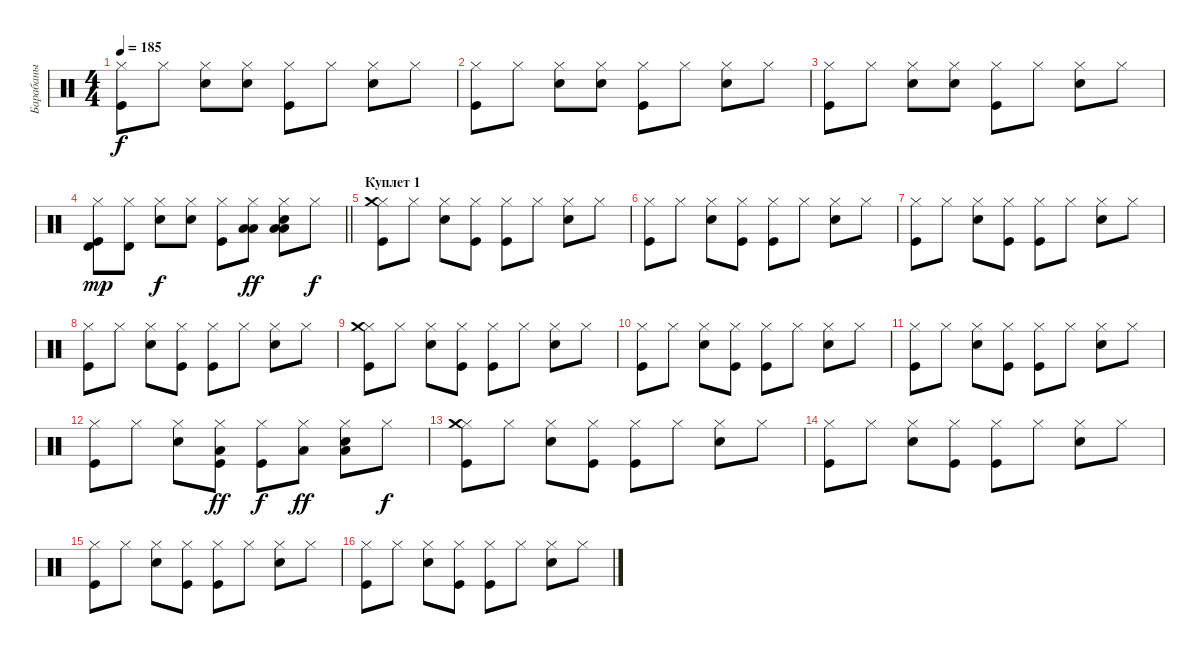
\track ("Барабаны" "Барабаны") {instrument percussion}
\staff {score}
\articulation defaults
\ts (4 4)
\tempo 185
\clef neutral
\ks c
("Kick (hit)" "Hi-Hat (closed)").8{dy f} "Hi-Hat (closed)".8 ("Snare (hit) 2" "Hi-Hat (closed)").8 ("Snare (hit) 2" "Hi-Hat (closed)").8 ("Kick (hit)" "Hi-Hat (closed)").8 "Hi-Hat (closed)".8 ("Snare (hit) 2" "Hi-Hat (closed)").8 "Hi-Hat (closed)".8 |
("Kick (hit)" "Hi-Hat (closed)").8 "Hi-Hat (closed)".8 ("Snare (hit) 2" "Hi-Hat (closed)").8 ("Snare (hit) 2" "Hi-Hat (closed)").8 ("Kick (hit)" "Hi-Hat (closed)").8 "Hi-Hat (closed)".8 ("Snare (hit) 2" "Hi-Hat (closed)").8 "Hi-Hat (closed)".8 |
("Kick (hit)" "Hi-Hat (closed)").8 "Hi-Hat (closed)".8 ("Snare (hit) 2" "Hi-Hat (closed)").8 ("Snare (hit) 2" "Hi-Hat (closed)").8 ("Kick (hit)" "Hi-Hat (closed)").8 "Hi-Hat (closed)".8 ("Snare (hit) 2" "Hi-Hat (closed)").8 "Hi-Hat (closed)".8 |
\barLineRight lightlight
("Kick (hit)" "Hi-Hat (closed)" "Timbale high (hit)").8{dy mp} ("Hi-Hat (closed)" "Timbale high (hit)").8 ("Snare (hit) 2" "Hi-Hat (closed)").8{dy f} ("Snare (hit) 2" "Hi-Hat (closed)").8 ("Kick (hit)" "Hi-Hat (closed)").8 ("Hi-Hat (closed)" "Low Floor Tom (hit)" "Low Floor Tom (hit)").8{dy ff} ("Snare (hit) 2" "Hi-Hat (closed)" "Low Floor Tom (hit)" "Low Floor Tom (hit)").8 "Hi-Hat (closed)".8{dy f} |
\section ("" "Куплет 1")
("Kick (hit)" "Hi-Hat (closed)" "Crash medium (hit)").8 "Hi-Hat (closed)".8 ("Snare (hit) 2" "Hi-Hat (closed)").8 ("Kick (hit)" "Hi-Hat (closed)").8 ("Kick (hit)" "Hi-Hat (closed)").8 "Hi-Hat (closed)".8 ("Snare (hit) 2" "Hi-Hat (closed)").8 "Hi-Hat (closed)".8 |
("Kick (hit)" "Hi-Hat (closed)").8 "Hi-Hat (closed)".8 ("Snare (hit) 2" "Hi-Hat (closed)").8 ("Kick (hit)" "Hi-Hat (closed)").8 ("Kick (hit)" "Hi-Hat (closed)").8 "Hi-Hat (closed)".8 ("Snare (hit) 2" "Hi-Hat (closed)").8 "Hi-Hat (closed)".8 |
("Kick (hit)" "Hi-Hat (closed)").8 "Hi-Hat (closed)".8 ("Snare (hit) 2" "Hi-Hat (closed)").8 ("Kick (hit)" "Hi-Hat (closed)").8 ("Kick (hit)" "Hi-Hat (closed)").8 "Hi-Hat (closed)".8 ("Snare (hit) 2" "Hi-Hat (closed)").8 "Hi-Hat (closed)".8 |
("Kick (hit)" "Hi-Hat (closed)").8 "Hi-Hat (closed)".8 ("Snare (hit) 2" "Hi-Hat (closed)").8 ("Kick (hit)" "Hi-Hat (closed)").8 ("Kick (hit)" "Hi-Hat (closed)").8 "Hi-Hat (closed)".8 ("Snare (hit) 2" "Hi-Hat (closed)").8 "Hi-Hat (closed)".8 |
("Kick (hit)" "Hi-Hat (closed)" "Crash medium (hit)").8 "Hi-Hat (closed)".8 ("Snare (hit) 2" "Hi-Hat (closed)").8 ("Kick (hit)" "Hi-Hat (closed)").8 ("Kick (hit)" "Hi-Hat (closed)").8 "Hi-Hat (closed)".8 ("Snare (hit) 2" "Hi-Hat (closed)").8 "Hi-Hat (closed)".8 |
("Kick (hit)" "Hi-Hat (closed)").8 "Hi-Hat (closed)".8 ("Snare (hit) 2" "Hi-Hat (closed)").8 ("Kick (hit)" "Hi-Hat (closed)").8 ("Kick (hit)" "Hi-Hat (closed)").8 "Hi-Hat (closed)".8 ("Snare (hit) 2" "Hi-Hat (closed)").8 "Hi-Hat (closed)".8 |
("Kick (hit)" "Hi-Hat (closed)").8 "Hi-Hat (closed)".8 ("Snare (hit) 2" "Hi-Hat (closed)").8 ("Kick (hit)" "Hi-Hat (closed)").8 ("Kick (hit)" "Hi-Hat (closed)").8 "Hi-Hat (closed)".8 ("Snare (hit) 2" "Hi-Hat (closed)").8 "Hi-Hat (closed)".8 |
("Kick (hit)" "Hi-Hat (closed)").8 "Hi-Hat (closed)".8 ("Snare (hit) 2" "Hi-Hat (closed)").8 ("Kick (hit)" "Hi-Hat (closed)" "Low Tom (hit)").8{dy ff} ("Kick (hit)" "Hi-Hat (closed)").8{dy f} ("Hi-Hat (closed)" "Low Floor Tom (hit)").8{dy ff} ("Snare (hit) 2" "Hi-Hat (closed)" "Low Floor Tom (hit)").8 "Hi-Hat (closed)".8{dy f} |
("Kick (hit)" "Hi-Hat (closed)" "Crash medium (hit)").8 "Hi-Hat (closed)".8 ("Snare (hit) 2" "Hi-Hat (closed)").8 ("Kick (hit)" "Hi-Hat (closed)").8 ("Kick (hit)" "Hi-Hat (closed)").8 "Hi-Hat (closed)".8 ("Snare (hit) 2" "Hi-Hat (closed)").8 "Hi-Hat (closed)".8 |
("Kick (hit)" "Hi-Hat (closed)").8 "Hi-Hat (closed)".8 ("Snare (hit) 2" "Hi-Hat (closed)").8 ("Kick (hit)" "Hi-Hat (closed)").8 ("Kick (hit)" "Hi-Hat (closed)").8 "Hi-Hat (closed)".8 ("Snare (hit) 2" "Hi-Hat (closed)").8 "Hi-Hat (closed)".8 |
("Kick (hit)" "Hi-Hat (closed)").8 "Hi-Hat (closed)".8 ("Snare (hit) 2" "Hi-Hat (closed)").8 ("Kick (hit)" "Hi-Hat (closed)").8 ("Kick (hit)" "Hi-Hat (closed)").8 "Hi-Hat (closed)".8 ("Snare (hit) 2" "Hi-Hat (closed)").8 "Hi-Hat (closed)".8 |
("Kick (hit)" "Hi-Hat (closed)").8 "Hi-Hat (closed)".8 ("Snare (hit) 2" "Hi-Hat (closed)").8 ("Kick (hit)" "Hi-Hat (closed)").8 ("Kick (hit)" "Hi-Hat (closed)").8 "Hi-Hat (closed)".8 ("Snare (hit) 2" "Hi-Hat (closed)").8 "Hi-Hat (closed)".8
